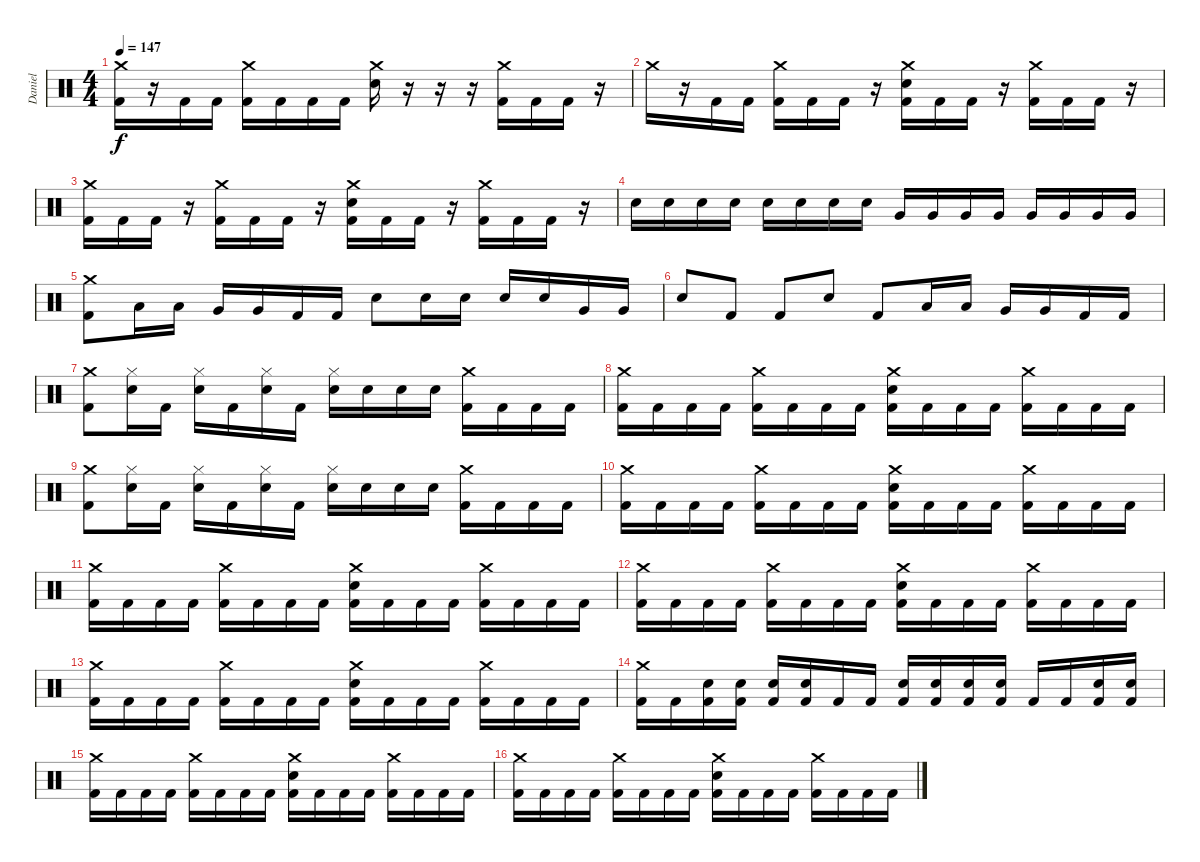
\track ("Daniel" "Daniel") {instrument percussion}
\staff {score}
\articulation defaults
\ts (4 4)
\tempo 147
\clef neutral
\ks c
("Crash medium (hit)" "Kick (hit) 2").16{dy f} r.16 "Kick (hit) 2".16 "Kick (hit) 2".16 ("Crash medium (hit)" "Kick (hit) 2").16 "Kick (hit) 2".16 "Kick (hit) 2".16 "Kick (hit) 2".16 ("Crash medium (hit)" "Electric Snare (hit)").16 r.16 r.16 r.16 ("Crash medium (hit)" "Kick (hit) 2").16 "Kick (hit) 2".16 "Kick (hit) 2".16 r.16 |
"Crash medium (hit)".16 r.16 "Kick (hit) 2".16 "Kick (hit) 2".16 ("Crash medium (hit)" "Kick (hit) 2").16 "Kick (hit) 2".16 "Kick (hit) 2".16 r.16 ("Crash medium (hit)" "Electric Snare (hit)" "Kick (hit) 2").16 "Kick (hit) 2".16 "Kick (hit) 2".16 r.16 ("Crash medium (hit)" "Kick (hit) 2").16 "Kick (hit) 2".16 "Kick (hit) 2".16 r.16 |
("Crash medium (hit)" "Kick (hit) 2").16 "Kick (hit) 2".16 "Kick (hit) 2".16 r.16 ("Crash medium (hit)" "Kick (hit) 2").16 "Kick (hit) 2".16 "Kick (hit) 2".16 r.16 ("Crash medium (hit)" "Electric Snare (hit)" "Kick (hit) 2").16 "Kick (hit) 2".16 "Kick (hit) 2".16 r.16 ("Crash medium (hit)" "Kick (hit) 2").16 "Kick (hit) 2".16 "Kick (hit) 2".16 r.16 |
"Electric Snare (hit)".16 "Electric Snare (hit)".16 "Electric Snare (hit)".16 "Electric Snare (hit)".16 "Electric Snare (hit)".16 "Electric Snare (hit)".16 "Electric Snare (hit)".16 "Electric Snare (hit)".16 "Very Low Tom (hit)".16 "Very Low Tom (hit)".16 "Very Low Tom (hit)".16 "Very Low Tom (hit)".16 "Very Low Tom (hit)".16 "Very Low Tom (hit)".16 "Very Low Tom (hit)".16 "Very Low Tom (hit)".16 |
("Crash medium (hit)" "Kick (hit) 2").8 "Low Tom (hit)".16 "Low Tom (hit)".16 "Very Low Tom (hit)".16 "Very Low Tom (hit)".16 "Kick (hit) 2".16 "Kick (hit) 2".16 "Electric Snare (hit)".8 "Electric Snare (hit)".16 "Electric Snare (hit)".16 "Electric Snare (hit)".16 "Electric Snare (hit)".16 "Very Low Tom (hit)".16 "Very Low Tom (hit)".16 |
"Electric Snare (hit)".8 "Kick (hit) 2".8 "Kick (hit) 2".8 "Electric Snare (hit)".8 "Kick (hit) 2".8 "Low Tom (hit)".16 "Low Tom (hit)".16 "Very Low Tom (hit)".16 "Very Low Tom (hit)".16 "Kick (hit) 2".16 "Kick (hit) 2".16 |
("Crash medium (hit)" "Kick (hit) 2").8 ("Hi-Hat (closed)" "Electric Snare (hit)").16 "Kick (hit) 2".16 ("Hi-Hat (closed)" "Electric Snare (hit)").16 "Kick (hit) 2".16 ("Hi-Hat (closed)" "Electric Snare (hit)").16 "Kick (hit) 2".16 ("Hi-Hat (closed)" "Electric Snare (hit)").16 "Electric Snare (hit)".16 "Electric Snare (hit)".16 "Electric Snare (hit)".16 ("Crash medium (hit)" "Kick (hit) 2").16 "Kick (hit) 2".16 "Kick (hit) 2".16 "Kick (hit) 2".16 |
("Crash medium (hit)" "Kick (hit) 2").16 "Kick (hit) 2".16 "Kick (hit) 2".16 "Kick (hit) 2".16 ("Crash medium (hit)" "Kick (hit) 2").16 "Kick (hit) 2".16 "Kick (hit) 2".16 "Kick (hit) 2".16 ("Crash medium (hit)" "Electric Snare (hit)" "Kick (hit) 2").16 "Kick (hit) 2".16 "Kick (hit) 2".16 "Kick (hit) 2".16 ("Crash medium (hit)" "Kick (hit) 2").16 "Kick (hit) 2".16 "Kick (hit) 2".16 "Kick (hit) 2".16 |
("Crash medium (hit)" "Kick (hit) 2").8 ("Hi-Hat (closed)" "Electric Snare (hit)").16 "Kick (hit) 2".16 ("Hi-Hat (closed)" "Electric Snare (hit)").16 "Kick (hit) 2".16 ("Hi-Hat (closed)" "Electric Snare (hit)").16 "Kick (hit) 2".16 ("Hi-Hat (closed)" "Electric Snare (hit)").16 "Electric Snare (hit)".16 "Electric Snare (hit)".16 "Electric Snare (hit)".16 ("Crash medium (hit)" "Kick (hit) 2").16 "Kick (hit) 2".16 "Kick (hit) 2".16 "Kick (hit) 2".16 |
("Crash medium (hit)" "Kick (hit) 2").16 "Kick (hit) 2".16 "Kick (hit) 2".16 "Kick (hit) 2".16 ("Crash medium (hit)" "Kick (hit) 2").16 "Kick (hit) 2".16 "Kick (hit) 2".16 "Kick (hit) 2".16 ("Crash medium (hit)" "Electric Snare (hit)" "Kick (hit) 2").16 "Kick (hit) 2".16 "Kick (hit) 2".16 "Kick (hit) 2".16 ("Crash medium (hit)" "Kick (hit) 2").16 "Kick (hit) 2".16 "Kick (hit) 2".16 "Kick (hit) 2".16 |
("Crash medium (hit)" "Kick (hit) 2").16 "Kick (hit) 2".16 "Kick (hit) 2".16 "Kick (hit) 2".16 ("Crash medium (hit)" "Kick (hit) 2").16 "Kick (hit) 2".16 "Kick (hit) 2".16 "Kick (hit) 2".16 ("Crash medium (hit)" "Electric Snare (hit)" "Kick (hit) 2").16 "Kick (hit) 2".16 "Kick (hit) 2".16 "Kick (hit) 2".16 ("Crash medium (hit)" "Kick (hit) 2").16 "Kick (hit) 2".16 "Kick (hit) 2".16 "Kick (hit) 2".16 |
("Crash medium (hit)" "Kick (hit) 2").16 "Kick (hit) 2".16 "Kick (hit) 2".16 "Kick (hit) 2".16 ("Crash medium (hit)" "Kick (hit) 2").16 "Kick (hit) 2".16 "Kick (hit) 2".16 "Kick (hit) 2".16 ("Crash medium (hit)" "Electric Snare (hit)" "Kick (hit) 2").16 "Kick (hit) 2".16 "Kick (hit) 2".16 "Kick (hit) 2".16 ("Crash medium (hit)" "Kick (hit) 2").16 "Kick (hit) 2".16 "Kick (hit) 2".16 "Kick (hit) 2".16 |
("Crash medium (hit)" "Kick (hit) 2").16 "Kick (hit) 2".16 "Kick (hit) 2".16 "Kick (hit) 2".16 ("Crash medium (hit)" "Kick (hit) 2").16 "Kick (hit) 2".16 "Kick (hit) 2".16 "Kick (hit) 2".16 ("Crash medium (hit)" "Electric Snare (hit)" "Kick (hit) 2").16 "Kick (hit) 2".16 "Kick (hit) 2".16 "Kick (hit) 2".16 ("Crash medium (hit)" "Kick (hit) 2").16 "Kick (hit) 2".16 "Kick (hit) 2".16 "Kick (hit) 2".16 |
("Crash medium (hit)" "Kick (hit) 2").16 "Kick (hit) 2".16 ("Electric Snare (hit)" "Kick (hit) 2").16 ("Electric Snare (hit)" "Kick (hit) 2").16 ("Electric Snare (hit)" "Kick (hit) 2").16 ("Electric Snare (hit)" "Kick (hit) 2").16 "Kick (hit) 2".16 "Kick (hit) 2".16 ("Electric Snare (hit)" "Kick (hit) 2").16 ("Electric Snare (hit)" "Kick (hit) 2").16 ("Electric Snare (hit)" "Kick (hit) 2").16 ("Electric Snare (hit)" "Kick (hit) 2").16 "Kick (hit) 2".16 "Kick (hit) 2".16 ("Electric Snare (hit)" "Kick (hit) 2").16 ("Electric Snare (hit)" "Kick (hit) 2").16 |
("Crash medium (hit)" "Kick (hit) 2").16 "Kick (hit) 2".16 "Kick (hit) 2".16 "Kick (hit) 2".16 ("Crash medium (hit)" "Kick (hit) 2").16 "Kick (hit) 2".16 "Kick (hit) 2".16 "Kick (hit) 2".16 ("Crash medium (hit)" "Electric Snare (hit)" "Kick (hit) 2").16 "Kick (hit) 2".16 "Kick (hit) 2".16 "Kick (hit) 2".16 ("Crash medium (hit)" "Kick (hit) 2").16 "Kick (hit) 2".16 "Kick (hit) 2".16 "Kick (hit) 2".16 |
("Crash medium (hit)" "Kick (hit) 2").16 "Kick (hit) 2".16 "Kick (hit) 2".16 "Kick (hit) 2".16 ("Crash medium (hit)" "Kick (hit) 2").16 "Kick (hit) 2".16 "Kick (hit) 2".16 "Kick (hit) 2".16 ("Crash medium (hit)" "Electric Snare (hit)" "Kick (hit) 2").16 "Kick (hit) 2".16 "Kick (hit) 2".16 "Kick (hit) 2".16 ("Crash medium (hit)" "Kick (hit) 2").16 "Kick (hit) 2".16 "Kick (hit) 2".16 "Kick (hit) 2".16
